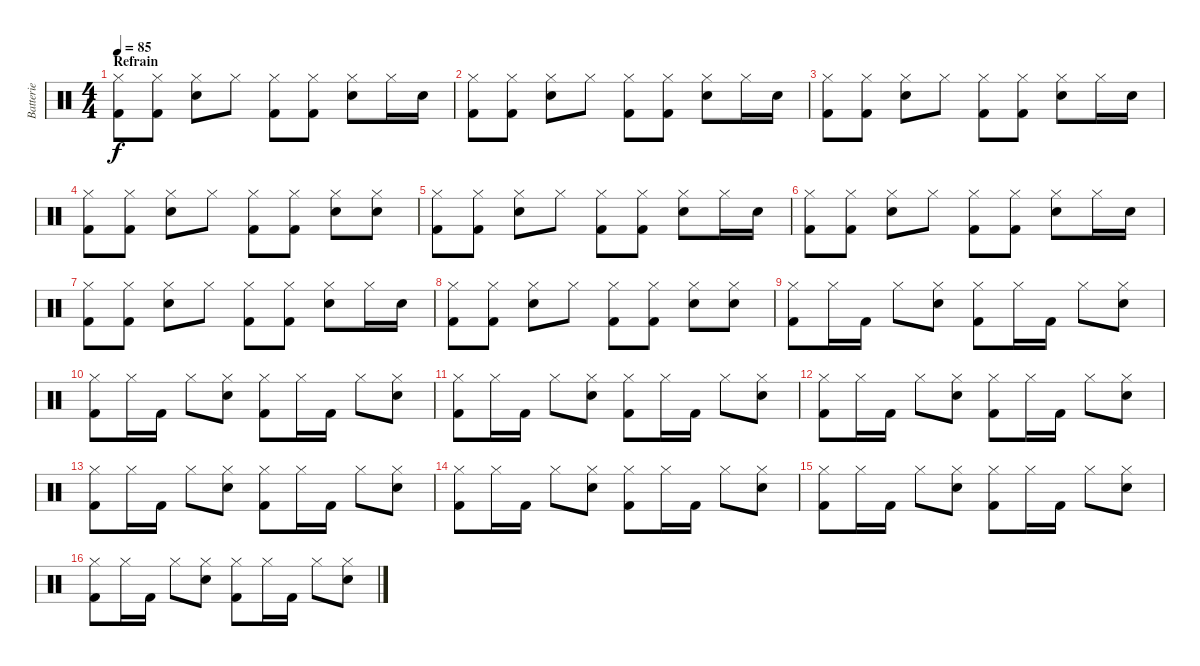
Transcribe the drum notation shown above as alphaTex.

\track ("Batterie" "Batterie") {instrument percussion}
\staff {score}
\articulation defaults
\ts (4 4)
\section ("" "Refrain")
\tempo 85
\clef neutral
\ks c
("Hi-Hat (closed)" "Kick (hit) 2").8{dy f} ("Hi-Hat (closed)" "Kick (hit) 2").8 ("Hi-Hat (closed)" "Snare (hit) 2").8 "Hi-Hat (closed)".8 ("Hi-Hat (closed)" "Kick (hit) 2").8 ("Hi-Hat (closed)" "Kick (hit) 2").8 ("Hi-Hat (closed)" "Snare (hit) 2").8 "Hi-Hat (closed)".16 "Snare (hit) 2".16 |
("Hi-Hat (closed)" "Kick (hit) 2").8 ("Hi-Hat (closed)" "Kick (hit) 2").8 ("Hi-Hat (closed)" "Snare (hit) 2").8 "Hi-Hat (closed)".8 ("Hi-Hat (closed)" "Kick (hit) 2").8 ("Hi-Hat (closed)" "Kick (hit) 2").8 ("Hi-Hat (closed)" "Snare (hit) 2").8 "Hi-Hat (closed)".16 "Snare (hit) 2".16 |
("Hi-Hat (closed)" "Kick (hit) 2").8 ("Hi-Hat (closed)" "Kick (hit) 2").8 ("Hi-Hat (closed)" "Snare (hit) 2").8 "Hi-Hat (closed)".8 ("Hi-Hat (closed)" "Kick (hit) 2").8 ("Hi-Hat (closed)" "Kick (hit) 2").8 ("Hi-Hat (closed)" "Snare (hit) 2").8 "Hi-Hat (closed)".16 "Snare (hit) 2".16 |
("Hi-Hat (closed)" "Kick (hit) 2").8 ("Hi-Hat (closed)" "Kick (hit) 2").8 ("Hi-Hat (closed)" "Snare (hit) 2").8 "Hi-Hat (closed)".8 ("Hi-Hat (closed)" "Kick (hit) 2").8 ("Hi-Hat (closed)" "Kick (hit) 2").8 ("Hi-Hat (closed)" "Snare (hit) 2").8 ("Hi-Hat (closed)" "Snare (hit) 2").8 |
("Hi-Hat (closed)" "Kick (hit) 2").8 ("Hi-Hat (closed)" "Kick (hit) 2").8 ("Hi-Hat (closed)" "Snare (hit) 2").8 "Hi-Hat (closed)".8 ("Hi-Hat (closed)" "Kick (hit) 2").8 ("Hi-Hat (closed)" "Kick (hit) 2").8 ("Hi-Hat (closed)" "Snare (hit) 2").8 "Hi-Hat (closed)".16 "Snare (hit) 2".16 |
("Hi-Hat (closed)" "Kick (hit) 2").8 ("Hi-Hat (closed)" "Kick (hit) 2").8 ("Hi-Hat (closed)" "Snare (hit) 2").8 "Hi-Hat (closed)".8 ("Hi-Hat (closed)" "Kick (hit) 2").8 ("Hi-Hat (closed)" "Kick (hit) 2").8 ("Hi-Hat (closed)" "Snare (hit) 2").8 "Hi-Hat (closed)".16 "Snare (hit) 2".16 |
("Hi-Hat (closed)" "Kick (hit) 2").8 ("Hi-Hat (closed)" "Kick (hit) 2").8 ("Hi-Hat (closed)" "Snare (hit) 2").8 "Hi-Hat (closed)".8 ("Hi-Hat (closed)" "Kick (hit) 2").8 ("Hi-Hat (closed)" "Kick (hit) 2").8 ("Hi-Hat (closed)" "Snare (hit) 2").8 "Hi-Hat (closed)".16 "Snare (hit) 2".16 |
("Hi-Hat (closed)" "Kick (hit) 2").8 ("Hi-Hat (closed)" "Kick (hit) 2").8 ("Hi-Hat (closed)" "Snare (hit) 2").8 "Hi-Hat (closed)".8 ("Hi-Hat (closed)" "Kick (hit) 2").8 ("Hi-Hat (closed)" "Kick (hit) 2").8 ("Hi-Hat (closed)" "Snare (hit) 2").8 ("Hi-Hat (closed)" "Snare (hit) 2").8 |
("Hi-Hat (closed)" "Kick (hit) 2").8 "Hi-Hat (closed)".16 "Kick (hit) 2".16 "Hi-Hat (closed)".8 ("Hi-Hat (closed)" "Snare (hit) 2").8 ("Hi-Hat (closed)" "Kick (hit) 2").8 "Hi-Hat (closed)".16 "Kick (hit) 2".16 "Hi-Hat (closed)".8 ("Hi-Hat (closed)" "Snare (hit) 2").8 |
("Hi-Hat (closed)" "Kick (hit) 2").8 "Hi-Hat (closed)".16 "Kick (hit) 2".16 "Hi-Hat (closed)".8 ("Hi-Hat (closed)" "Snare (hit) 2").8 ("Hi-Hat (closed)" "Kick (hit) 2").8 "Hi-Hat (closed)".16 "Kick (hit) 2".16 "Hi-Hat (closed)".8 ("Hi-Hat (closed)" "Snare (hit) 2").8 |
("Hi-Hat (closed)" "Kick (hit) 2").8 "Hi-Hat (closed)".16 "Kick (hit) 2".16 "Hi-Hat (closed)".8 ("Hi-Hat (closed)" "Snare (hit) 2").8 ("Hi-Hat (closed)" "Kick (hit) 2").8 "Hi-Hat (closed)".16 "Kick (hit) 2".16 "Hi-Hat (closed)".8 ("Hi-Hat (closed)" "Snare (hit) 2").8 |
("Hi-Hat (closed)" "Kick (hit) 2").8 "Hi-Hat (closed)".16 "Kick (hit) 2".16 "Hi-Hat (closed)".8 ("Hi-Hat (closed)" "Snare (hit) 2").8 ("Hi-Hat (closed)" "Kick (hit) 2").8 "Hi-Hat (closed)".16 "Kick (hit) 2".16 "Hi-Hat (closed)".8 ("Hi-Hat (closed)" "Snare (hit) 2").8 |
("Hi-Hat (closed)" "Kick (hit) 2").8 "Hi-Hat (closed)".16 "Kick (hit) 2".16 "Hi-Hat (closed)".8 ("Hi-Hat (closed)" "Snare (hit) 2").8 ("Hi-Hat (closed)" "Kick (hit) 2").8 "Hi-Hat (closed)".16 "Kick (hit) 2".16 "Hi-Hat (closed)".8 ("Hi-Hat (closed)" "Snare (hit) 2").8 |
("Hi-Hat (closed)" "Kick (hit) 2").8 "Hi-Hat (closed)".16 "Kick (hit) 2".16 "Hi-Hat (closed)".8 ("Hi-Hat (closed)" "Snare (hit) 2").8 ("Hi-Hat (closed)" "Kick (hit) 2").8 "Hi-Hat (closed)".16 "Kick (hit) 2".16 "Hi-Hat (closed)".8 ("Hi-Hat (closed)" "Snare (hit) 2").8 |
("Hi-Hat (closed)" "Kick (hit) 2").8 "Hi-Hat (closed)".16 "Kick (hit) 2".16 "Hi-Hat (closed)".8 ("Hi-Hat (closed)" "Snare (hit) 2").8 ("Hi-Hat (closed)" "Kick (hit) 2").8 "Hi-Hat (closed)".16 "Kick (hit) 2".16 "Hi-Hat (closed)".8 ("Hi-Hat (closed)" "Snare (hit) 2").8 |
("Hi-Hat (closed)" "Kick (hit) 2").8 "Hi-Hat (closed)".16 "Kick (hit) 2".16 "Hi-Hat (closed)".8 ("Hi-Hat (closed)" "Snare (hit) 2").8 ("Hi-Hat (closed)" "Kick (hit) 2").8 "Hi-Hat (closed)".16 "Kick (hit) 2".16 "Hi-Hat (closed)".8 ("Hi-Hat (closed)" "Snare (hit) 2").8
